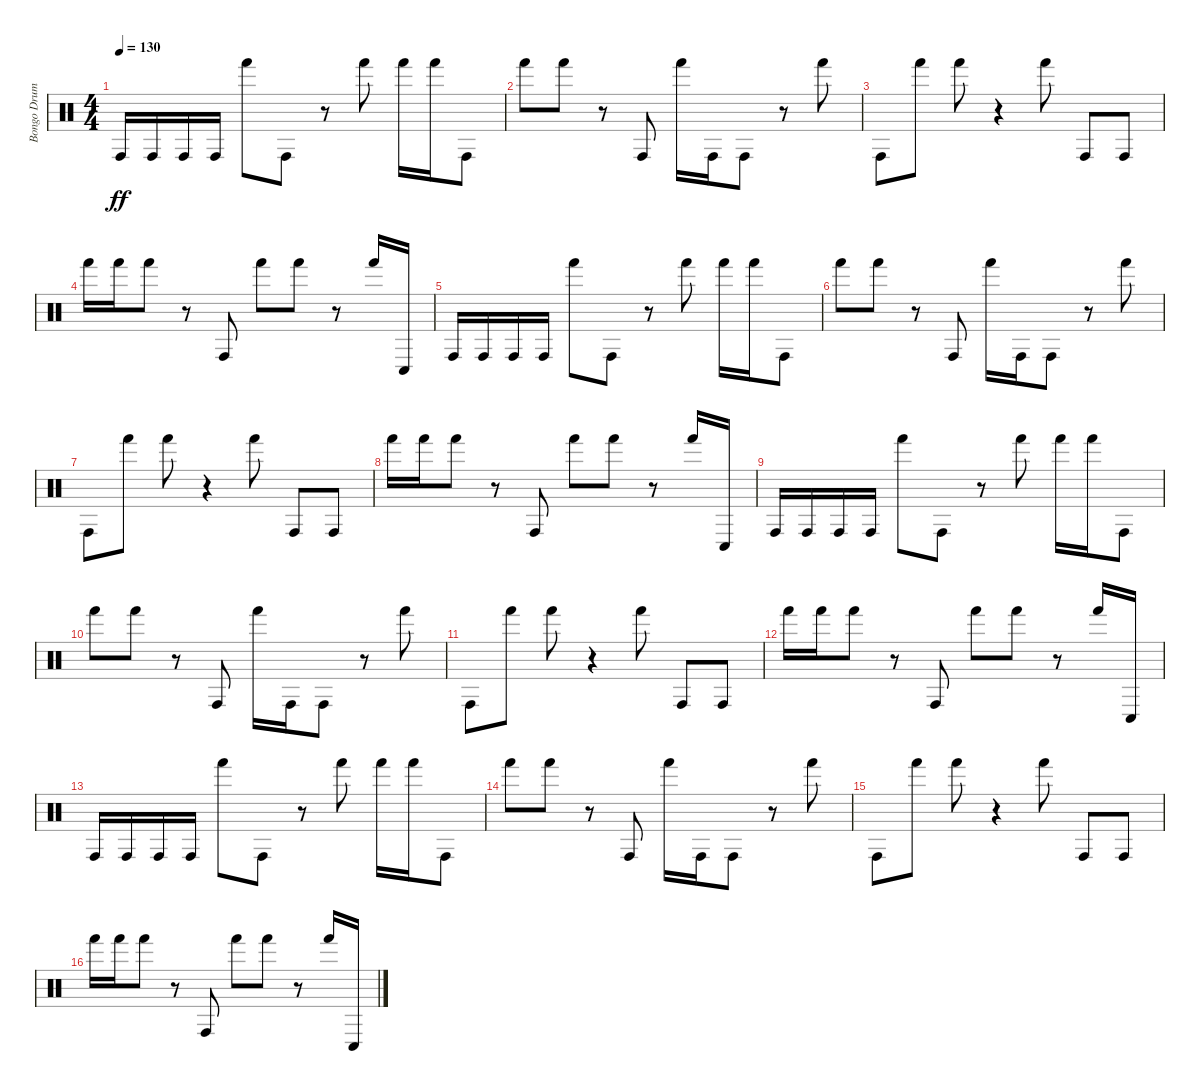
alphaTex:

\track ("Bongo Drums" "Bongo Drum") {instrument percussion}
\staff {score}
\articulation defaults
\ts (4 4)
\tempo 130
\clef neutral
\ks c "Conga high (hit)".16{dy ff} "Conga high (hit)".16 "Conga high (hit)".16 "Conga high (hit)".16 "Hand (hit)".8 "Conga high (hit)".8
r.8 "Hand (hit)".8 "Hand (hit)".16 "Hand (hit)".16 "Conga high (hit)".8 |
"Hand (hit)".8 "Hand (hit)".8 r.8 "Conga high (hit)".8 "Hand (hit)".16 "Conga high (hit)".16 "Conga high (hit)".8 r.8 "Hand (hit)".8 |
"Conga high (hit)".8 "Hand (hit)".8 "Hand (hit)".8 r.4 "Hand (hit)".8 "Conga high (hit)".8 "Conga high (hit)".8 |
"Hand (hit)".16 "Hand (hit)".16 "Hand (hit)".8 r.8 "Conga high (hit)".8 "Hand (hit)".8 "Hand (hit)".8 r.8 "Hand (hit)".16 "Conga low (hit)".16 |
"Conga high (hit)".16 "Conga high (hit)".16 "Conga high (hit)".16 "Conga high (hit)".16 "Hand (hit)".8 "Conga high (hit)".8 r.8 "Hand (hit)".8 "Hand (hit)".16 "Hand (hit)".16 "Conga high (hit)".8 |
"Hand (hit)".8 "Hand (hit)".8 r.8 "Conga high (hit)".8 "Hand (hit)".16 "Conga high (hit)".16 "Conga high (hit)".8 r.8 "Hand (hit)".8 |
"Conga high (hit)".8 "Hand (hit)".8 "Hand (hit)".8 r.4 "Hand (hit)".8 "Conga high (hit)".8 "Conga high (hit)".8 |
"Hand (hit)".16 "Hand (hit)".16 "Hand (hit)".8 r.8 "Conga high (hit)".8 "Hand (hit)".8 "Hand (hit)".8 r.8 "Hand (hit)".16 "Conga low (hit)".16 |
"Conga high (hit)".16 "Conga high (hit)".16 "Conga high (hit)".16 "Conga high (hit)".16 "Hand (hit)".8 "Conga high (hit)".8 r.8 "Hand (hit)".8 "Hand (hit)".16 "Hand (hit)".16 "Conga high (hit)".8 |
"Hand (hit)".8 "Hand (hit)".8 r.8 "Conga high (hit)".8 "Hand (hit)".16 "Conga high (hit)".16 "Conga high (hit)".8 r.8 "Hand (hit)".8 |
"Conga high (hit)".8 "Hand (hit)".8 "Hand (hit)".8 r.4 "Hand (hit)".8 "Conga high (hit)".8 "Conga high (hit)".8 |
"Hand (hit)".16 "Hand (hit)".16 "Hand (hit)".8 r.8 "Conga high (hit)".8 "Hand (hit)".8 "Hand (hit)".8 r.8 "Hand (hit)".16 "Conga low (hit)".16 |
"Conga high (hit)".16 "Conga high (hit)".16 "Conga high (hit)".16 "Conga high (hit)".16 "Hand (hit)".8 "Conga high (hit)".8 r.8 "Hand (hit)".8 "Hand (hit)".16 "Hand (hit)".16 "Conga high (hit)".8 |
"Hand (hit)".8 "Hand (hit)".8 r.8 "Conga high (hit)".8 "Hand (hit)".16 "Conga high (hit)".16 "Conga high (hit)".8 r.8 "Hand (hit)".8 |
"Conga high (hit)".8 "Hand (hit)".8 "Hand (hit)".8 r.4 "Hand (hit)".8 "Conga high (hit)".8 "Conga high (hit)".8 |
"Hand (hit)".16 "Hand (hit)".16 "Hand (hit)".8 r.8 "Conga high (hit)".8 "Hand (hit)".8 "Hand (hit)".8 r.8 "Hand (hit)".16 "Conga low (hit)".16
